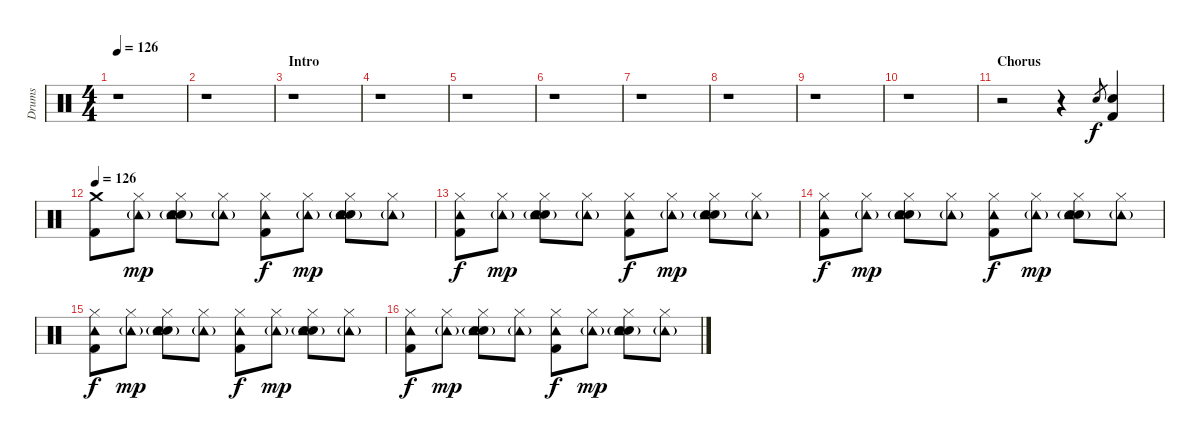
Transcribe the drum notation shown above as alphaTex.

\track ("Drums" "Drums") {instrument percussion}
\staff {score}
\articulation defaults
\ts (4 4)
\tempo 126
\tempo 119
\tempo 126
\clef neutral
\ks c
r.1{dy f} |
r.1 |
\section ("" "Intro")
r.1 |
r.1 |
r.1 |
r.1 |
r.1 |
r.1 |
r.1 |
r.1 |
\section ("" "Chorus")
r.2 r.4 "Snare (hit) 2".8{gr} ("Kick (hit) 2" "Snare (hit) 2").4 |
\tempo 126
("Kick (hit) 2" "Crash medium (hit)").8 ("Hi-Hat (closed)" "Tambourine (hit)"{g}).8{dy mp} ("Snare (hit) 2" "Hi-Hat (closed)" "Tambourine (hit)" "Hand Clap (hit)"{g}).8 ("Hi-Hat (closed)" "Tambourine (hit)"{g}).8 ("Kick (hit) 2" "Hi-Hat (closed)" "Tambourine (hit)").8{dy f} ("Hi-Hat (closed)" "Tambourine (hit)"{g}).8{dy mp} ("Snare (hit) 2" "Hi-Hat (closed)" "Tambourine (hit)" "Hand Clap (hit)"{g}).8 ("Hi-Hat (closed)" "Tambourine (hit)"{g}).8 |
("Kick (hit) 2" "Hi-Hat (closed)" "Tambourine (hit)").8{dy f} ("Hi-Hat (closed)" "Tambourine (hit)"{g}).8{dy mp} ("Snare (hit) 2" "Hi-Hat (closed)" "Tambourine (hit)" "Hand Clap (hit)"{g}).8 ("Hi-Hat (closed)" "Tambourine (hit)"{g}).8 ("Kick (hit) 2" "Hi-Hat (closed)" "Tambourine (hit)").8{dy f} ("Hi-Hat (closed)" "Tambourine (hit)"{g}).8{dy mp} ("Snare (hit) 2" "Hi-Hat (closed)" "Tambourine (hit)" "Hand Clap (hit)"{g}).8 ("Hi-Hat (closed)" "Tambourine (hit)"{g}).8 |
("Kick (hit) 2" "Hi-Hat (closed)" "Tambourine (hit)").8{dy f} ("Hi-Hat (closed)" "Tambourine (hit)"{g}).8{dy mp} ("Snare (hit) 2" "Hi-Hat (closed)" "Tambourine (hit)" "Hand Clap (hit)"{g}).8 ("Hi-Hat (closed)" "Tambourine (hit)"{g}).8 ("Kick (hit) 2" "Hi-Hat (closed)" "Tambourine (hit)").8{dy f} ("Hi-Hat (closed)" "Tambourine (hit)"{g}).8{dy mp} ("Snare (hit) 2" "Hi-Hat (closed)" "Tambourine (hit)" "Hand Clap (hit)"{g}).8 ("Hi-Hat (closed)" "Tambourine (hit)"{g}).8 |
("Kick (hit) 2" "Hi-Hat (closed)" "Tambourine (hit)").8{dy f} ("Hi-Hat (closed)" "Tambourine (hit)"{g}).8{dy mp} ("Snare (hit) 2" "Hi-Hat (closed)" "Tambourine (hit)" "Hand Clap (hit)"{g}).8 ("Hi-Hat (closed)" "Tambourine (hit)"{g}).8 ("Kick (hit) 2" "Hi-Hat (closed)" "Tambourine (hit)").8{dy f} ("Hi-Hat (closed)" "Tambourine (hit)"{g}).8{dy mp} ("Snare (hit) 2" "Hi-Hat (closed)" "Tambourine (hit)" "Hand Clap (hit)"{g}).8 ("Hi-Hat (closed)" "Tambourine (hit)"{g}).8 |
("Kick (hit) 2" "Hi-Hat (closed)" "Tambourine (hit)").8{dy f} ("Hi-Hat (closed)" "Tambourine (hit)"{g}).8{dy mp} ("Snare (hit) 2" "Hi-Hat (closed)" "Tambourine (hit)" "Hand Clap (hit)"{g}).8 ("Hi-Hat (closed)" "Tambourine (hit)"{g}).8 ("Kick (hit) 2" "Hi-Hat (closed)" "Tambourine (hit)").8{dy f} ("Hi-Hat (closed)" "Tambourine (hit)"{g}).8{dy mp} ("Snare (hit) 2" "Hi-Hat (closed)" "Tambourine (hit)" "Hand Clap (hit)"{g}).8 ("Hi-Hat (closed)" "Tambourine (hit)"{g}).8
